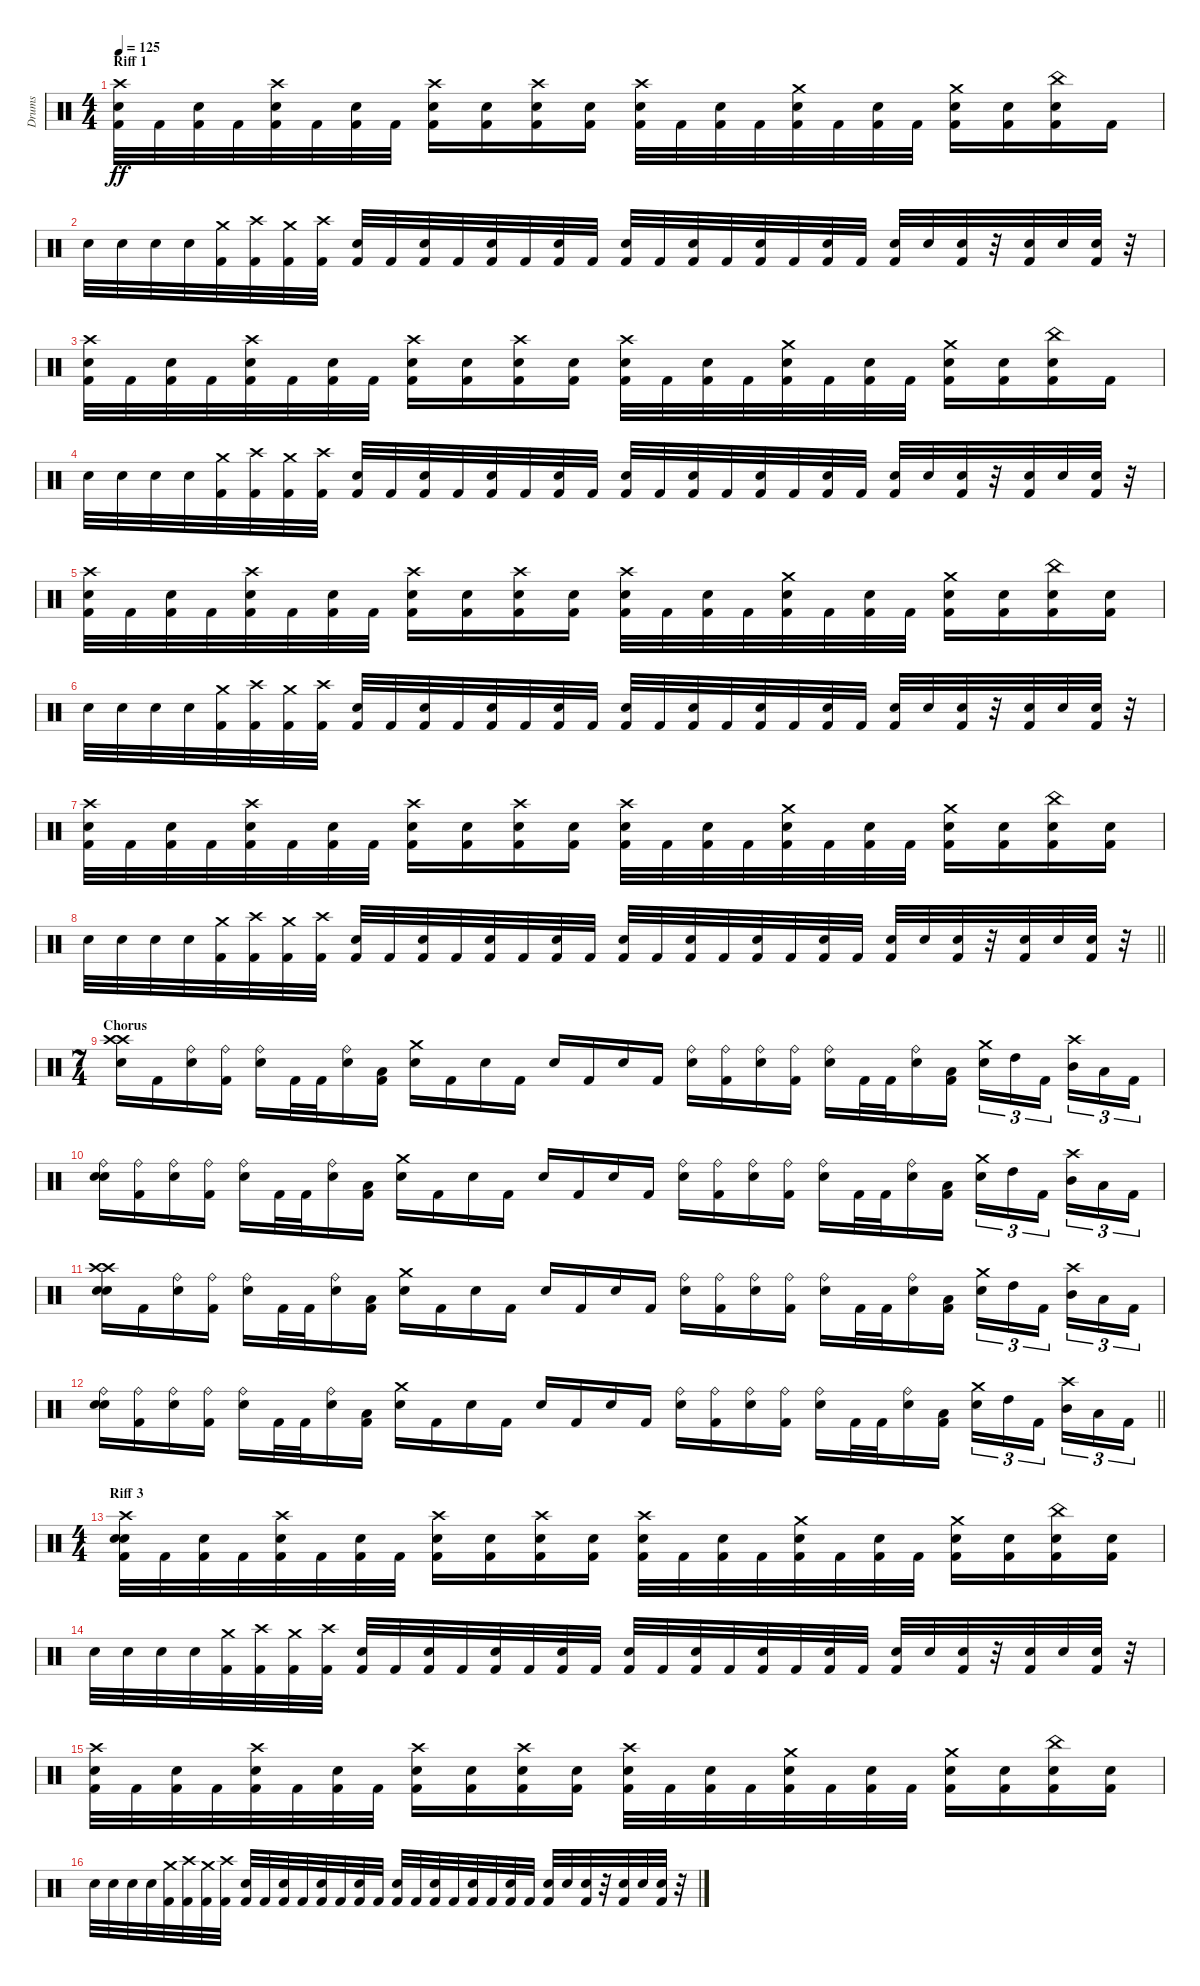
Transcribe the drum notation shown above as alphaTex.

\track ("Drums" "Drums") {instrument percussion}
\staff {score}
\articulation defaults
\ts (4 4)
\section ("" "Riff 1")
\tempo 125
\clef neutral
\ks c
("Crash high (hit)" "Kick (hit) 2" "Snare (hit) 2").32{dy ff} "Kick (hit) 2".32 ("Kick (hit) 2" "Snare (hit) 2").32 "Kick (hit) 2".32 ("Crash high (hit)" "Kick (hit) 2" "Snare (hit) 2").32 "Kick (hit) 2".32 ("Kick (hit) 2" "Snare (hit) 2").32 "Kick (hit) 2".32 ("Crash high (hit)" "Kick (hit) 2" "Snare (hit) 2").16 ("Kick (hit) 2" "Snare (hit) 2").16 ("Crash high (hit)" "Kick (hit) 2" "Snare (hit) 2").16 ("Kick (hit) 2" "Snare (hit) 2").16 ("Crash high (hit)" "Kick (hit) 2" "Snare (hit) 2").32 "Kick (hit) 2".32 ("Kick (hit) 2" "Snare (hit) 2").32 "Kick (hit) 2".32 ("Crash medium (hit)" "Kick (hit) 2" "Snare (hit) 2").32 "Kick (hit) 2".32 ("Kick (hit) 2" "Snare (hit) 2").32 "Kick (hit) 2".32 ("Crash medium (hit)" "Kick (hit) 2" "Snare (hit) 2").16 ("Kick (hit) 2" "Snare (hit) 2").16 ("China (hit)" "Kick (hit) 2" "Snare (hit) 2").16 "Kick (hit) 2".16 |
"Snare (hit) 2".32 "Snare (hit) 2".32 "Snare (hit) 2".32 "Snare (hit) 2".32 ("Crash medium (hit)" "Kick (hit) 2").32 ("Crash high (hit)" "Kick (hit) 2").32 ("Crash medium (hit)" "Kick (hit) 2").32 ("Crash high (hit)" "Kick (hit) 2").32 ("Kick (hit) 2" "Snare (hit) 2").32 "Kick (hit) 2".32 ("Kick (hit) 2" "Snare (hit) 2").32 "Kick (hit) 2".32 ("Kick (hit) 2" "Snare (hit) 2").32 "Kick (hit) 2".32 ("Kick (hit) 2" "Snare (hit) 2").32 "Kick (hit) 2".32 ("Kick (hit) 2" "Snare (hit) 2").32 "Kick (hit) 2".32 ("Kick (hit) 2" "Snare (hit) 2").32 "Kick (hit) 2".32 ("Kick (hit) 2" "Snare (hit) 2").32 "Kick (hit) 2".32 ("Kick (hit) 2" "Snare (hit) 2").32 "Kick (hit) 2".32 ("Kick (hit) 2" "Snare (hit) 2").32 "Snare (hit) 2".32 ("Kick (hit) 2" "Snare (hit) 2").32 r.32 ("Kick (hit) 2" "Snare (hit) 2").32 "Snare (hit) 2".32 ("Kick (hit) 2" "Snare (hit) 2").32 r.32 |
("Crash high (hit)" "Kick (hit) 2" "Snare (hit) 2").32 "Kick (hit) 2".32 ("Kick (hit) 2" "Snare (hit) 2").32 "Kick (hit) 2".32 ("Crash high (hit)" "Kick (hit) 2" "Snare (hit) 2").32 "Kick (hit) 2".32 ("Kick (hit) 2" "Snare (hit) 2").32 "Kick (hit) 2".32 ("Crash high (hit)" "Kick (hit) 2" "Snare (hit) 2").16 ("Kick (hit) 2" "Snare (hit) 2").16 ("Crash high (hit)" "Kick (hit) 2" "Snare (hit) 2").16 ("Kick (hit) 2" "Snare (hit) 2").16 ("Crash high (hit)" "Kick (hit) 2" "Snare (hit) 2").32 "Kick (hit) 2".32 ("Kick (hit) 2" "Snare (hit) 2").32 "Kick (hit) 2".32 ("Crash medium (hit)" "Kick (hit) 2" "Snare (hit) 2").32 "Kick (hit) 2".32 ("Kick (hit) 2" "Snare (hit) 2").32 "Kick (hit) 2".32 ("Crash medium (hit)" "Kick (hit) 2" "Snare (hit) 2").16 ("Kick (hit) 2" "Snare (hit) 2").16 ("China (hit)" "Kick (hit) 2" "Snare (hit) 2").16 "Kick (hit) 2".16 |
"Snare (hit) 2".32 "Snare (hit) 2".32 "Snare (hit) 2".32 "Snare (hit) 2".32 ("Crash medium (hit)" "Kick (hit) 2").32 ("Crash high (hit)" "Kick (hit) 2").32 ("Crash medium (hit)" "Kick (hit) 2").32 ("Crash high (hit)" "Kick (hit) 2").32 ("Kick (hit) 2" "Snare (hit) 2").32 "Kick (hit) 2".32 ("Kick (hit) 2" "Snare (hit) 2").32 "Kick (hit) 2".32 ("Kick (hit) 2" "Snare (hit) 2").32 "Kick (hit) 2".32 ("Kick (hit) 2" "Snare (hit) 2").32 "Kick (hit) 2".32 ("Kick (hit) 2" "Snare (hit) 2").32 "Kick (hit) 2".32 ("Kick (hit) 2" "Snare (hit) 2").32 "Kick (hit) 2".32 ("Kick (hit) 2" "Snare (hit) 2").32 "Kick (hit) 2".32 ("Kick (hit) 2" "Snare (hit) 2").32 "Kick (hit) 2".32 ("Kick (hit) 2" "Snare (hit) 2").32 "Snare (hit) 2".32 ("Kick (hit) 2" "Snare (hit) 2").32 r.32 ("Kick (hit) 2" "Snare (hit) 2").32 "Snare (hit) 2".32 ("Kick (hit) 2" "Snare (hit) 2").32 r.32 |
("Crash high (hit)" "Kick (hit) 2" "Snare (hit) 2").32 "Kick (hit) 2".32 ("Kick (hit) 2" "Snare (hit) 2").32 "Kick (hit) 2".32 ("Crash high (hit)" "Kick (hit) 2" "Snare (hit) 2").32 "Kick (hit) 2".32 ("Kick (hit) 2" "Snare (hit) 2").32 "Kick (hit) 2".32 ("Crash high (hit)" "Kick (hit) 2" "Snare (hit) 2").16 ("Kick (hit) 2" "Snare (hit) 2").16 ("Crash high (hit)" "Kick (hit) 2" "Snare (hit) 2").16 ("Kick (hit) 2" "Snare (hit) 2").16 ("Crash high (hit)" "Kick (hit) 2" "Snare (hit) 2").32 "Kick (hit) 2".32 ("Kick (hit) 2" "Snare (hit) 2").32 "Kick (hit) 2".32 ("Crash medium (hit)" "Kick (hit) 2" "Snare (hit) 2").32 "Kick (hit) 2".32 ("Kick (hit) 2" "Snare (hit) 2").32 "Kick (hit) 2".32 ("Crash medium (hit)" "Kick (hit) 2" "Snare (hit) 2").16 ("Kick (hit) 2" "Snare (hit) 2").16 ("China (hit)" "Kick (hit) 2" "Snare (hit) 2").16 ("Kick (hit) 2" "Snare (hit) 2").16 |
"Snare (hit) 2".32 "Snare (hit) 2".32 "Snare (hit) 2".32 "Snare (hit) 2".32 ("Crash medium (hit)" "Kick (hit) 2").32 ("Crash high (hit)" "Kick (hit) 2").32 ("Crash medium (hit)" "Kick (hit) 2").32 ("Crash high (hit)" "Kick (hit) 2").32 ("Kick (hit) 2" "Snare (hit) 2").32 "Kick (hit) 2".32 ("Kick (hit) 2" "Snare (hit) 2").32 "Kick (hit) 2".32 ("Kick (hit) 2" "Snare (hit) 2").32 "Kick (hit) 2".32 ("Kick (hit) 2" "Snare (hit) 2").32 "Kick (hit) 2".32 ("Kick (hit) 2" "Snare (hit) 2").32 "Kick (hit) 2".32 ("Kick (hit) 2" "Snare (hit) 2").32 "Kick (hit) 2".32 ("Kick (hit) 2" "Snare (hit) 2").32 "Kick (hit) 2".32 ("Kick (hit) 2" "Snare (hit) 2").32 "Kick (hit) 2".32 ("Kick (hit) 2" "Snare (hit) 2").32 "Snare (hit) 2".32 ("Kick (hit) 2" "Snare (hit) 2").32 r.32 ("Kick (hit) 2" "Snare (hit) 2").32 "Snare (hit) 2".32 ("Kick (hit) 2" "Snare (hit) 2").32 r.32 |
("Crash high (hit)" "Kick (hit) 2" "Snare (hit) 2").32 "Kick (hit) 2".32 ("Kick (hit) 2" "Snare (hit) 2").32 "Kick (hit) 2".32 ("Crash high (hit)" "Kick (hit) 2" "Snare (hit) 2").32 "Kick (hit) 2".32 ("Kick (hit) 2" "Snare (hit) 2").32 "Kick (hit) 2".32 ("Crash high (hit)" "Kick (hit) 2" "Snare (hit) 2").16 ("Kick (hit) 2" "Snare (hit) 2").16 ("Crash high (hit)" "Kick (hit) 2" "Snare (hit) 2").16 ("Kick (hit) 2" "Snare (hit) 2").16 ("Crash high (hit)" "Kick (hit) 2" "Snare (hit) 2").32 "Kick (hit) 2".32 ("Kick (hit) 2" "Snare (hit) 2").32 "Kick (hit) 2".32 ("Crash medium (hit)" "Kick (hit) 2" "Snare (hit) 2").32 "Kick (hit) 2".32 ("Kick (hit) 2" "Snare (hit) 2").32 "Kick (hit) 2".32 ("Crash medium (hit)" "Kick (hit) 2" "Snare (hit) 2").16 ("Kick (hit) 2" "Snare (hit) 2").16 ("China (hit)" "Kick (hit) 2" "Snare (hit) 2").16 ("Kick (hit) 2" "Snare (hit) 2").16 |
\barLineRight lightlight "Snare (hit) 2".32 "Snare (hit) 2".32 "Snare (hit) 2".32 "Snare (hit) 2".32
("Crash medium (hit)" "Kick (hit) 2").32 ("Crash high (hit)" "Kick (hit) 2").32 ("Crash medium (hit)" "Kick (hit) 2").32 ("Crash high (hit)" "Kick (hit) 2").32 ("Kick (hit) 2" "Snare (hit) 2").32 "Kick (hit) 2".32 ("Kick (hit) 2" "Snare (hit) 2").32 "Kick (hit) 2".32 ("Kick (hit) 2" "Snare (hit) 2").32 "Kick (hit) 2".32 ("Kick (hit) 2" "Snare (hit) 2").32 "Kick (hit) 2".32 ("Kick (hit) 2" "Snare (hit) 2").32 "Kick (hit) 2".32 ("Kick (hit) 2" "Snare (hit) 2").32 "Kick (hit) 2".32 ("Kick (hit) 2" "Snare (hit) 2").32 "Kick (hit) 2".32 ("Kick (hit) 2" "Snare (hit) 2").32 "Kick (hit) 2".32 ("Kick (hit) 2" "Snare (hit) 2").32 "Snare (hit) 2".32 ("Kick (hit) 2" "Snare (hit) 2").32 r.32 ("Kick (hit) 2" "Snare (hit) 2").32 "Snare (hit) 2".32 ("Kick (hit) 2" "Snare (hit) 2").32 r.32 |
\ts (7 4)
\section ("" "Chorus")
("Crash high (hit)" "Crash high (hit)" "Snare (hit) 2").16 "Kick (hit) 2".16 ("Snare (hit) 2" "Ride (bell)").16 ("Kick (hit) 2" "Ride (bell)").16 ("Snare (hit) 2" "Ride (bell)").16 "Kick (hit) 2".32 "Kick (hit) 2".32 ("Snare (hit) 2" "Ride (bell)").16 ("Kick (hit) 2" "Low Tom (hit)").16 ("Crash medium (hit)" "Snare (hit) 2").16 "Kick (hit) 2".16 "Snare (hit) 2".16 "Kick (hit) 2".16 "Snare (hit) 2".16 "Kick (hit) 2".16 "Snare (hit) 2".16 "Kick (hit) 2".16 ("Snare (hit) 2" "Ride (bell)").16 ("Kick (hit) 2" "Ride (bell)").16 ("Snare (hit) 2" "Ride (bell)").16 ("Kick (hit) 2" "Ride (bell)").16 ("Snare (hit) 2" "Ride (bell)").16 "Kick (hit) 2".32 "Kick (hit) 2".32 ("Snare (hit) 2" "Ride (bell)").16 ("Kick (hit) 2" "Low Tom (hit)").16 ("Crash medium (hit)" "Snare (hit) 2").16{tu (3 2)} "High Tom (hit)".16{tu (3 2)} "Kick (hit) 2".16{tu (3 2) beam splitsecondary} ("Crash high (hit)" "Mid Tom (hit)").16{tu (3 2)} "Low Tom (hit)".16{tu (3 2)} "Kick (hit) 2".16{tu (3 2)} |
("Snare (hit) 2" "Snare (hit) 2" "Ride (bell)").16 ("Kick (hit) 2" "Ride (bell)").16 ("Snare (hit) 2" "Ride (bell)").16 ("Kick (hit) 2" "Ride (bell)").16 ("Snare (hit) 2" "Ride (bell)").16 "Kick (hit) 2".32 "Kick (hit) 2".32 ("Snare (hit) 2" "Ride (bell)").16 ("Kick (hit) 2" "Low Tom (hit)").16 ("Crash medium (hit)" "Snare (hit) 2").16 "Kick (hit) 2".16 "Snare (hit) 2".16 "Kick (hit) 2".16 "Snare (hit) 2".16 "Kick (hit) 2".16 "Snare (hit) 2".16 "Kick (hit) 2".16 ("Snare (hit) 2" "Ride (bell)").16 ("Kick (hit) 2" "Ride (bell)").16 ("Snare (hit) 2" "Ride (bell)").16 ("Kick (hit) 2" "Ride (bell)").16 ("Snare (hit) 2" "Ride (bell)").16 "Kick (hit) 2".32 "Kick (hit) 2".32 ("Snare (hit) 2" "Ride (bell)").16 ("Kick (hit) 2" "Low Tom (hit)").16 ("Crash medium (hit)" "Snare (hit) 2").16{tu (3 2)} "High Tom (hit)".16{tu (3 2)} "Kick (hit) 2".16{tu (3 2) beam splitsecondary} ("Crash high (hit)" "Mid Tom (hit)").16{tu (3 2)} "Low Tom (hit)".16{tu (3 2)} "Kick (hit) 2".16{tu (3 2)} |
("Snare (hit) 2" "Crash high (hit)" "Crash high (hit)" "Snare (hit) 2").16 "Kick (hit) 2".16 ("Snare (hit) 2" "Ride (bell)").16 ("Kick (hit) 2" "Ride (bell)").16 ("Snare (hit) 2" "Ride (bell)").16 "Kick (hit) 2".32 "Kick (hit) 2".32 ("Snare (hit) 2" "Ride (bell)").16 ("Kick (hit) 2" "Low Tom (hit)").16 ("Crash medium (hit)" "Snare (hit) 2").16 "Kick (hit) 2".16 "Snare (hit) 2".16 "Kick (hit) 2".16 "Snare (hit) 2".16 "Kick (hit) 2".16 "Snare (hit) 2".16 "Kick (hit) 2".16 ("Snare (hit) 2" "Ride (bell)").16 ("Kick (hit) 2" "Ride (bell)").16 ("Snare (hit) 2" "Ride (bell)").16 ("Kick (hit) 2" "Ride (bell)").16 ("Snare (hit) 2" "Ride (bell)").16 "Kick (hit) 2".32 "Kick (hit) 2".32 ("Snare (hit) 2" "Ride (bell)").16 ("Kick (hit) 2" "Low Tom (hit)").16 ("Crash medium (hit)" "Snare (hit) 2").16{tu (3 2)} "High Tom (hit)".16{tu (3 2)} "Kick (hit) 2".16{tu (3 2) beam splitsecondary} ("Crash high (hit)" "Mid Tom (hit)").16{tu (3 2)} "Low Tom (hit)".16{tu (3 2)} "Kick (hit) 2".16{tu (3 2)} |
\barLineRight lightlight
("Snare (hit) 2" "Snare (hit) 2" "Ride (bell)").16 ("Kick (hit) 2" "Ride (bell)").16 ("Snare (hit) 2" "Ride (bell)").16 ("Kick (hit) 2" "Ride (bell)").16 ("Snare (hit) 2" "Ride (bell)").16 "Kick (hit) 2".32 "Kick (hit) 2".32 ("Snare (hit) 2" "Ride (bell)").16 ("Kick (hit) 2" "Low Tom (hit)").16 ("Crash medium (hit)" "Snare (hit) 2").16 "Kick (hit) 2".16 "Snare (hit) 2".16 "Kick (hit) 2".16 "Snare (hit) 2".16 "Kick (hit) 2".16 "Snare (hit) 2".16 "Kick (hit) 2".16 ("Snare (hit) 2" "Ride (bell)").16 ("Kick (hit) 2" "Ride (bell)").16 ("Snare (hit) 2" "Ride (bell)").16 ("Kick (hit) 2" "Ride (bell)").16 ("Snare (hit) 2" "Ride (bell)").16 "Kick (hit) 2".32 "Kick (hit) 2".32 ("Snare (hit) 2" "Ride (bell)").16 ("Kick (hit) 2" "Low Tom (hit)").16 ("Crash medium (hit)" "Snare (hit) 2").16{tu (3 2)} "High Tom (hit)".16{tu (3 2)} "Kick (hit) 2".16{tu (3 2) beam splitsecondary} ("Crash high (hit)" "Mid Tom (hit)").16{tu (3 2)} "Low Tom (hit)".16{tu (3 2)} "Kick (hit) 2".16{tu (3 2)} |
\ts (4 4)
\section ("" "Riff 3")
("Snare (hit) 2" "Crash high (hit)" "Kick (hit) 2" "Snare (hit) 2").32 "Kick (hit) 2".32 ("Kick (hit) 2" "Snare (hit) 2").32 "Kick (hit) 2".32 ("Crash high (hit)" "Kick (hit) 2" "Snare (hit) 2").32 "Kick (hit) 2".32 ("Kick (hit) 2" "Snare (hit) 2").32 "Kick (hit) 2".32 ("Crash high (hit)" "Kick (hit) 2" "Snare (hit) 2").16 ("Kick (hit) 2" "Snare (hit) 2").16 ("Crash high (hit)" "Kick (hit) 2" "Snare (hit) 2").16 ("Kick (hit) 2" "Snare (hit) 2").16 ("Crash high (hit)" "Kick (hit) 2" "Snare (hit) 2").32 "Kick (hit) 2".32 ("Kick (hit) 2" "Snare (hit) 2").32 "Kick (hit) 2".32 ("Crash medium (hit)" "Kick (hit) 2" "Snare (hit) 2").32 "Kick (hit) 2".32 ("Kick (hit) 2" "Snare (hit) 2").32 "Kick (hit) 2".32 ("Crash medium (hit)" "Kick (hit) 2" "Snare (hit) 2").16 ("Kick (hit) 2" "Snare (hit) 2").16 ("China (hit)" "Kick (hit) 2" "Snare (hit) 2").16 ("Kick (hit) 2" "Snare (hit) 2").16 |
"Snare (hit) 2".32 "Snare (hit) 2".32 "Snare (hit) 2".32 "Snare (hit) 2".32 ("Crash medium (hit)" "Kick (hit) 2").32 ("Crash high (hit)" "Kick (hit) 2").32 ("Crash medium (hit)" "Kick (hit) 2").32 ("Crash high (hit)" "Kick (hit) 2").32 ("Kick (hit) 2" "Snare (hit) 2").32 "Kick (hit) 2".32 ("Kick (hit) 2" "Snare (hit) 2").32 "Kick (hit) 2".32 ("Kick (hit) 2" "Snare (hit) 2").32 "Kick (hit) 2".32 ("Kick (hit) 2" "Snare (hit) 2").32 "Kick (hit) 2".32 ("Kick (hit) 2" "Snare (hit) 2").32 "Kick (hit) 2".32 ("Kick (hit) 2" "Snare (hit) 2").32 "Kick (hit) 2".32 ("Kick (hit) 2" "Snare (hit) 2").32 "Kick (hit) 2".32 ("Kick (hit) 2" "Snare (hit) 2").32 "Kick (hit) 2".32 ("Kick (hit) 2" "Snare (hit) 2").32 "Snare (hit) 2".32 ("Kick (hit) 2" "Snare (hit) 2").32 r.32 ("Kick (hit) 2" "Snare (hit) 2").32 "Snare (hit) 2".32 ("Kick (hit) 2" "Snare (hit) 2").32 r.32 |
("Crash high (hit)" "Kick (hit) 2" "Snare (hit) 2").32 "Kick (hit) 2".32 ("Kick (hit) 2" "Snare (hit) 2").32 "Kick (hit) 2".32 ("Crash high (hit)" "Kick (hit) 2" "Snare (hit) 2").32 "Kick (hit) 2".32 ("Kick (hit) 2" "Snare (hit) 2").32 "Kick (hit) 2".32 ("Crash high (hit)" "Kick (hit) 2" "Snare (hit) 2").16 ("Kick (hit) 2" "Snare (hit) 2").16 ("Crash high (hit)" "Kick (hit) 2" "Snare (hit) 2").16 ("Kick (hit) 2" "Snare (hit) 2").16 ("Crash high (hit)" "Kick (hit) 2" "Snare (hit) 2").32 "Kick (hit) 2".32 ("Kick (hit) 2" "Snare (hit) 2").32 "Kick (hit) 2".32 ("Crash medium (hit)" "Kick (hit) 2" "Snare (hit) 2").32 "Kick (hit) 2".32 ("Kick (hit) 2" "Snare (hit) 2").32 "Kick (hit) 2".32 ("Crash medium (hit)" "Kick (hit) 2" "Snare (hit) 2").16 ("Kick (hit) 2" "Snare (hit) 2").16 ("China (hit)" "Kick (hit) 2" "Snare (hit) 2").16 ("Kick (hit) 2" "Snare (hit) 2").16 |
"Snare (hit) 2".32 "Snare (hit) 2".32 "Snare (hit) 2".32 "Snare (hit) 2".32 ("Crash medium (hit)" "Kick (hit) 2").32 ("Crash high (hit)" "Kick (hit) 2").32 ("Crash medium (hit)" "Kick (hit) 2").32 ("Crash high (hit)" "Kick (hit) 2").32 ("Kick (hit) 2" "Snare (hit) 2").32 "Kick (hit) 2".32 ("Kick (hit) 2" "Snare (hit) 2").32 "Kick (hit) 2".32 ("Kick (hit) 2" "Snare (hit) 2").32 "Kick (hit) 2".32 ("Kick (hit) 2" "Snare (hit) 2").32 "Kick (hit) 2".32 ("Kick (hit) 2" "Snare (hit) 2").32 "Kick (hit) 2".32 ("Kick (hit) 2" "Snare (hit) 2").32 "Kick (hit) 2".32 ("Kick (hit) 2" "Snare (hit) 2").32 "Kick (hit) 2".32 ("Kick (hit) 2" "Snare (hit) 2").32 "Kick (hit) 2".32 ("Kick (hit) 2" "Snare (hit) 2").32 "Snare (hit) 2".32 ("Kick (hit) 2" "Snare (hit) 2").32 r.32 ("Kick (hit) 2" "Snare (hit) 2").32 "Snare (hit) 2".32 ("Kick (hit) 2" "Snare (hit) 2").32 r.32
